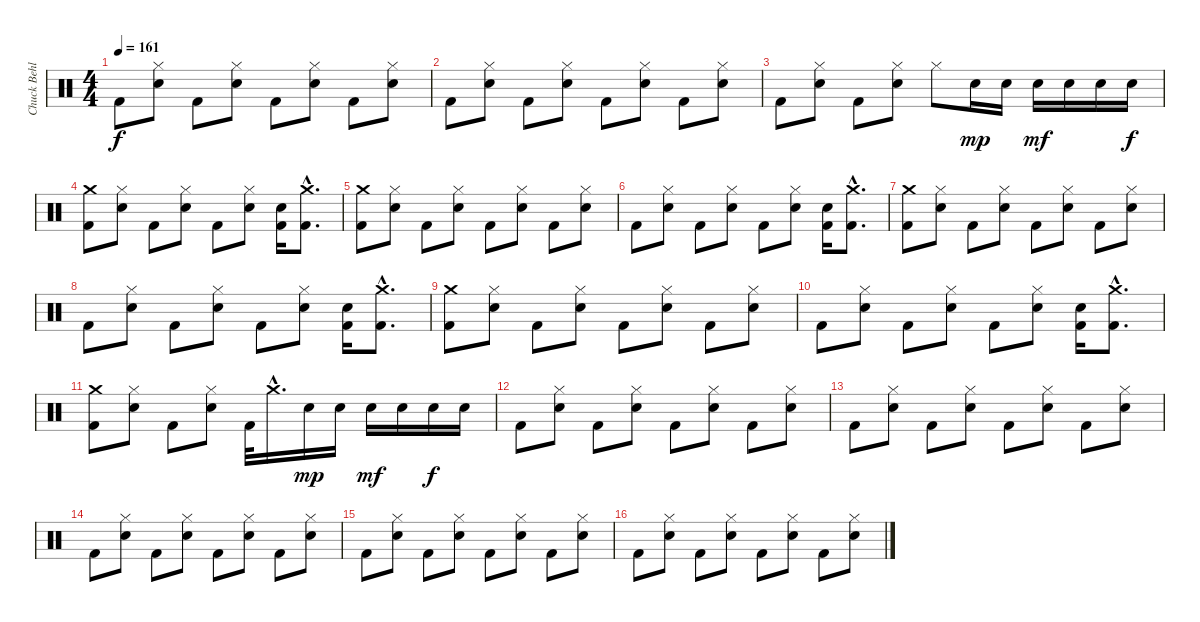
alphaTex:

\track ("Chuck Behler" "Chuck Behl") {instrument percussion}
\staff {score}
\articulation defaults
\ts (4 4)
\tempo 161
\clef neutral
\ks c "Kick (hit) 2".8{dy f}
("Hi-Hat (closed)" "Snare (hit) 2").8 "Kick (hit) 2".8 ("Hi-Hat (closed)" "Snare (hit) 2").8 "Kick (hit) 2".8 ("Hi-Hat (closed)" "Snare (hit) 2").8 "Kick (hit) 2".8 ("Hi-Hat (closed)" "Snare (hit) 2").8 |
"Kick (hit) 2".8 ("Hi-Hat (closed)" "Snare (hit) 2").8 "Kick (hit) 2".8 ("Hi-Hat (closed)" "Snare (hit) 2").8 "Kick (hit) 2".8 ("Hi-Hat (closed)" "Snare (hit) 2").8 "Kick (hit) 2".8 ("Hi-Hat (closed)" "Snare (hit) 2").8 |
"Kick (hit) 2".8 ("Hi-Hat (closed)" "Snare (hit) 2").8 "Kick (hit) 2".8 ("Hi-Hat (closed)" "Snare (hit) 2").8 "Hi-Hat (closed)".8 "Snare (hit) 2".16{dy mp} "Snare (hit) 2".16 "Snare (hit) 2".16{dy mf} "Snare (hit) 2".16 "Snare (hit) 2".16 "Snare (hit) 2".16{dy f} |
("Crash medium (hit)" "Kick (hit) 2").8 ("Hi-Hat (closed)" "Snare (hit) 2").8 "Kick (hit) 2".8 ("Hi-Hat (closed)" "Snare (hit) 2").8 "Kick (hit) 2".8 ("Hi-Hat (closed)" "Snare (hit) 2").8 ("Snare (hit) 2" "Kick (hit) 2").16 ("Crash medium (hit)"{hac} "Kick (hit) 2"{hac}).8{d} |
("Crash medium (hit)" "Kick (hit) 2").8 ("Hi-Hat (closed)" "Snare (hit) 2").8 "Kick (hit) 2".8 ("Hi-Hat (closed)" "Snare (hit) 2").8 "Kick (hit) 2".8 ("Hi-Hat (closed)" "Snare (hit) 2").8 "Kick (hit) 2".8 ("Hi-Hat (closed)" "Snare (hit) 2").8 |
"Kick (hit) 2".8 ("Hi-Hat (closed)" "Snare (hit) 2").8 "Kick (hit) 2".8 ("Hi-Hat (closed)" "Snare (hit) 2").8 "Kick (hit) 2".8 ("Hi-Hat (closed)" "Snare (hit) 2").8 ("Snare (hit) 2" "Kick (hit) 2").16 ("Crash medium (hit)"{hac} "Kick (hit) 2"{hac}).8{d} |
("Crash medium (hit)" "Kick (hit) 2").8 ("Hi-Hat (closed)" "Snare (hit) 2").8 "Kick (hit) 2".8 ("Hi-Hat (closed)" "Snare (hit) 2").8 "Kick (hit) 2".8 ("Hi-Hat (closed)" "Snare (hit) 2").8 "Kick (hit) 2".8 ("Hi-Hat (closed)" "Snare (hit) 2").8 |
"Kick (hit) 2".8 ("Hi-Hat (closed)" "Snare (hit) 2").8 "Kick (hit) 2".8 ("Hi-Hat (closed)" "Snare (hit) 2").8 "Kick (hit) 2".8 ("Hi-Hat (closed)" "Snare (hit) 2").8 ("Snare (hit) 2" "Kick (hit) 2").16 ("Crash medium (hit)"{hac} "Kick (hit) 2"{hac}).8{d} |
("Crash medium (hit)" "Kick (hit) 2").8 ("Hi-Hat (closed)" "Snare (hit) 2").8 "Kick (hit) 2".8 ("Hi-Hat (closed)" "Snare (hit) 2").8 "Kick (hit) 2".8 ("Hi-Hat (closed)" "Snare (hit) 2").8 "Kick (hit) 2".8 ("Hi-Hat (closed)" "Snare (hit) 2").8 |
"Kick (hit) 2".8 ("Hi-Hat (closed)" "Snare (hit) 2").8 "Kick (hit) 2".8 ("Hi-Hat (closed)" "Snare (hit) 2").8 "Kick (hit) 2".8 ("Hi-Hat (closed)" "Snare (hit) 2").8 ("Snare (hit) 2" "Kick (hit) 2").16 ("Crash medium (hit)"{hac} "Kick (hit) 2"{hac}).8{d} |
("Crash medium (hit)" "Kick (hit) 2").8 ("Hi-Hat (closed)" "Snare (hit) 2").8 "Kick (hit) 2".8 ("Hi-Hat (closed)" "Snare (hit) 2").8 "Kick (hit) 2".32 "Crash medium (hit)"{hac}.16{d} "Snare (hit) 2".16{dy mp} "Snare (hit) 2".16 "Snare (hit) 2".16{dy mf} "Snare (hit) 2".16 "Snare (hit) 2".16{dy f} "Snare (hit) 2".16 |
"Kick (hit) 2".8 ("Hi-Hat (closed)" "Snare (hit) 2").8 "Kick (hit) 2".8 ("Hi-Hat (closed)" "Snare (hit) 2").8 "Kick (hit) 2".8 ("Hi-Hat (closed)" "Snare (hit) 2").8 "Kick (hit) 2".8 ("Hi-Hat (closed)" "Snare (hit) 2").8 |
"Kick (hit) 2".8 ("Hi-Hat (closed)" "Snare (hit) 2").8 "Kick (hit) 2".8 ("Hi-Hat (closed)" "Snare (hit) 2").8 "Kick (hit) 2".8 ("Hi-Hat (closed)" "Snare (hit) 2").8 "Kick (hit) 2".8 ("Hi-Hat (closed)" "Snare (hit) 2").8 |
"Kick (hit) 2".8 ("Hi-Hat (closed)" "Snare (hit) 2").8 "Kick (hit) 2".8 ("Hi-Hat (closed)" "Snare (hit) 2").8 "Kick (hit) 2".8 ("Hi-Hat (closed)" "Snare (hit) 2").8 "Kick (hit) 2".8 ("Hi-Hat (closed)" "Snare (hit) 2").8 |
"Kick (hit) 2".8 ("Hi-Hat (closed)" "Snare (hit) 2").8 "Kick (hit) 2".8 ("Hi-Hat (closed)" "Snare (hit) 2").8 "Kick (hit) 2".8 ("Hi-Hat (closed)" "Snare (hit) 2").8 "Kick (hit) 2".8 ("Hi-Hat (closed)" "Snare (hit) 2").8 |
"Kick (hit) 2".8 ("Hi-Hat (closed)" "Snare (hit) 2").8 "Kick (hit) 2".8 ("Hi-Hat (closed)" "Snare (hit) 2").8 "Kick (hit) 2".8 ("Hi-Hat (closed)" "Snare (hit) 2").8 "Kick (hit) 2".8 ("Hi-Hat (closed)" "Snare (hit) 2").8
